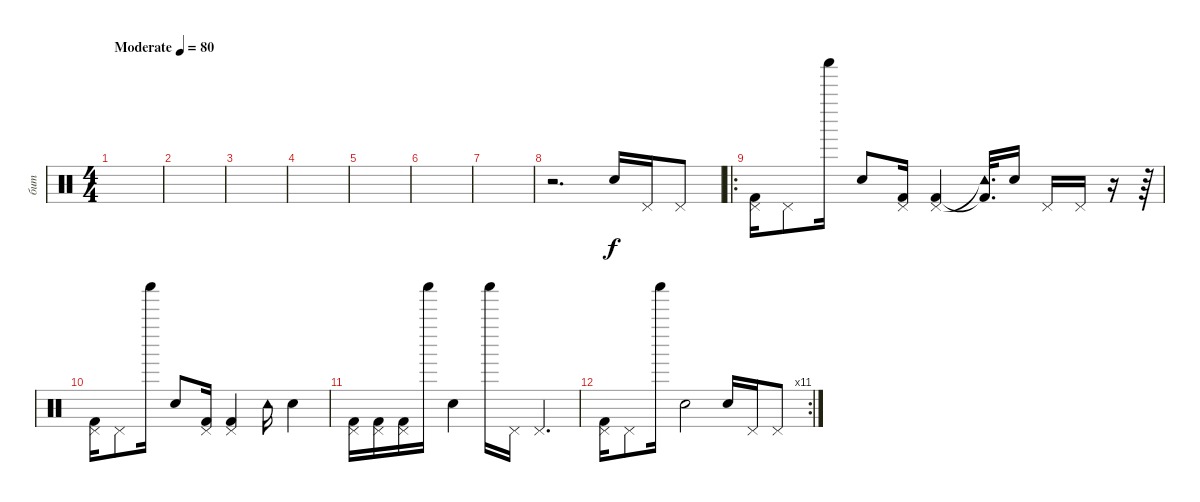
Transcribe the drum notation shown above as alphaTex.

\track ("бит" "бит") {instrument percussion}
\staff {score}
\articulation defaults
\ts (4 4)
\tempo (80 "Moderate")
\clef neutral
\ks c
|
|
|
|
|
|
|
r.2{d} "Hand Clap (hit)".16 "Pedal Hi-Hat (hit)".16 "Pedal Hi-Hat (hit)".8 |
\ro
("Pedal Hi-Hat (hit)" "Kick (hit) 2").16 "Pedal Hi-Hat (hit)".8 "Shaker (hit)".16 "Hand Clap (hit)".8 ("Pedal Hi-Hat (hit)" "Kick (hit) 2").16 ("Pedal Hi-Hat (hit)" "Kick (hit) 2").4 ("Tambourine (hit)"{t} "Kick (hit) 2"{t}).32{d} "Hand Clap (hit)".16 "Pedal Hi-Hat (hit)".16 "Pedal Hi-Hat (hit)".16 r.16 r.64 |
("Pedal Hi-Hat (hit)" "Kick (hit) 2").16 "Pedal Hi-Hat (hit)".8 "Shaker (hit)".16 "Hand Clap (hit)".8 ("Pedal Hi-Hat (hit)" "Kick (hit) 2").16 ("Pedal Hi-Hat (hit)" "Kick (hit) 2").4 "Tambourine (hit)".16 "Hand Clap (hit)".4 |
("Pedal Hi-Hat (hit)" "Kick (hit) 2").16 ("Pedal Hi-Hat (hit)" "Kick (hit) 2").16 ("Pedal Hi-Hat (hit)" "Kick (hit) 2").16 "Shaker (hit)".16 "Hand Clap (hit)".4 "Shaker (hit)".16 "Pedal Hi-Hat (hit)".16 "Pedal Hi-Hat (hit)".4{d} |
\rc 11
("Pedal Hi-Hat (hit)" "Kick (hit) 2").16 "Pedal Hi-Hat (hit)".8 "Shaker (hit)".16 "Hand Clap (hit)".2 "Hand Clap (hit)".16 "Pedal Hi-Hat (hit)".16 "Pedal Hi-Hat (hit)".8
